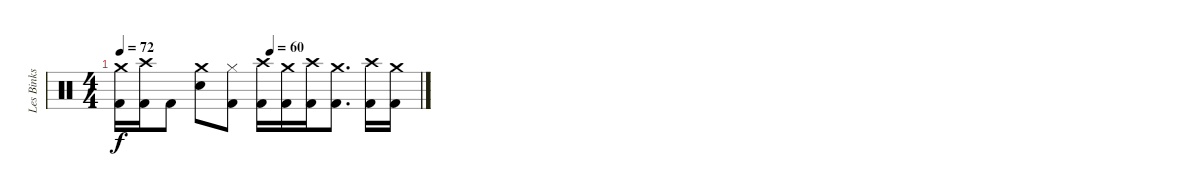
\track ("Les Binks" "Les Binks") {instrument percussion}
\staff {score}
\articulation defaults
\ts (4 4)
\tempo 72
\tempo (60 0.5)
\clef neutral
\ks c
("Crash medium (hit)" "Kick (hit) 2").16{dy f} ("Crash high (hit)" "Kick (hit) 2").16 "Kick (hit) 2".8 ("Crash medium (hit)" "Snare (hit) 2").8 ("Hi-Hat (closed)" "Kick (hit) 2").8 ("Crash high (hit)" "Kick (hit) 2").16 ("Crash medium (hit)" "Kick (hit) 2").16 ("Crash high (hit)" "Kick (hit) 2").16 ("Crash medium (hit)" "Kick (hit) 2").8{d} ("Crash high (hit)" "Kick (hit) 2").16 ("Crash medium (hit)" "Kick (hit) 2").16
